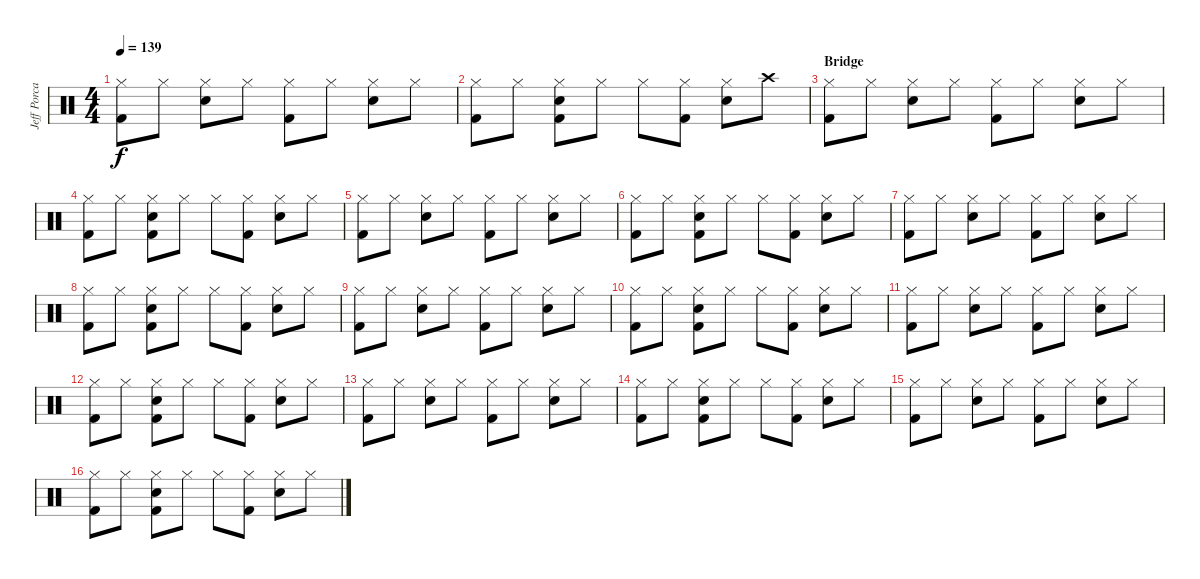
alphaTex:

\track ("Jeff Porcaro (Percussion)" "Jeff Porca") {instrument percussion}
\staff {score}
\articulation defaults
\ts (4 4)
\tempo 139
\clef neutral
\ks c
("Hi-Hat (closed)" "Kick (hit) 2").8{dy f} "Hi-Hat (closed)".8 ("Hi-Hat (closed)" "Snare (hit) 2").8 "Hi-Hat (closed)".8 ("Hi-Hat (closed)" "Kick (hit) 2").8 "Hi-Hat (closed)".8 ("Hi-Hat (closed)" "Snare (hit) 2").8 "Hi-Hat (closed)".8 |
("Hi-Hat (closed)" "Kick (hit) 2").8 "Hi-Hat (closed)".8 ("Hi-Hat (closed)" "Snare (hit) 2" "Kick (hit) 2").8 "Hi-Hat (closed)".8 "Hi-Hat (closed)".8 ("Hi-Hat (closed)" "Kick (hit) 2").8 ("Hi-Hat (closed)" "Snare (hit) 2").8 "Crash high (hit)".8 |
\section ("" "Bridge")
("Hi-Hat (closed)" "Kick (hit) 2").8 "Hi-Hat (closed)".8 ("Hi-Hat (closed)" "Snare (hit) 2").8 "Hi-Hat (closed)".8 ("Hi-Hat (closed)" "Kick (hit) 2").8 "Hi-Hat (closed)".8 ("Hi-Hat (closed)" "Snare (hit) 2").8 "Hi-Hat (closed)".8 |
("Hi-Hat (closed)" "Kick (hit) 2").8 "Hi-Hat (closed)".8 ("Hi-Hat (closed)" "Snare (hit) 2" "Kick (hit) 2").8 "Hi-Hat (closed)".8 "Hi-Hat (closed)".8 ("Hi-Hat (closed)" "Kick (hit) 2").8 ("Hi-Hat (closed)" "Snare (hit) 2").8 "Hi-Hat (closed)".8 |
("Hi-Hat (closed)" "Kick (hit) 2").8 "Hi-Hat (closed)".8 ("Hi-Hat (closed)" "Snare (hit) 2").8 "Hi-Hat (closed)".8 ("Hi-Hat (closed)" "Kick (hit) 2").8 "Hi-Hat (closed)".8 ("Hi-Hat (closed)" "Snare (hit) 2").8 "Hi-Hat (closed)".8 |
("Hi-Hat (closed)" "Kick (hit) 2").8 "Hi-Hat (closed)".8 ("Hi-Hat (closed)" "Snare (hit) 2" "Kick (hit) 2").8 "Hi-Hat (closed)".8 "Hi-Hat (closed)".8 ("Hi-Hat (closed)" "Kick (hit) 2").8 ("Hi-Hat (closed)" "Snare (hit) 2").8 "Hi-Hat (closed)".8 |
("Hi-Hat (closed)" "Kick (hit) 2").8 "Hi-Hat (closed)".8 ("Hi-Hat (closed)" "Snare (hit) 2").8 "Hi-Hat (closed)".8 ("Hi-Hat (closed)" "Kick (hit) 2").8 "Hi-Hat (closed)".8 ("Hi-Hat (closed)" "Snare (hit) 2").8 "Hi-Hat (closed)".8 |
("Hi-Hat (closed)" "Kick (hit) 2").8 "Hi-Hat (closed)".8 ("Hi-Hat (closed)" "Snare (hit) 2" "Kick (hit) 2").8 "Hi-Hat (closed)".8 "Hi-Hat (closed)".8 ("Hi-Hat (closed)" "Kick (hit) 2").8 ("Hi-Hat (closed)" "Snare (hit) 2").8 "Hi-Hat (closed)".8 |
("Hi-Hat (closed)" "Kick (hit) 2").8 "Hi-Hat (closed)".8 ("Hi-Hat (closed)" "Snare (hit) 2").8 "Hi-Hat (closed)".8 ("Hi-Hat (closed)" "Kick (hit) 2").8 "Hi-Hat (closed)".8 ("Hi-Hat (closed)" "Snare (hit) 2").8 "Hi-Hat (closed)".8 |
("Hi-Hat (closed)" "Kick (hit) 2").8 "Hi-Hat (closed)".8 ("Hi-Hat (closed)" "Snare (hit) 2" "Kick (hit) 2").8 "Hi-Hat (closed)".8 "Hi-Hat (closed)".8 ("Hi-Hat (closed)" "Kick (hit) 2").8 ("Hi-Hat (closed)" "Snare (hit) 2").8 "Hi-Hat (closed)".8 |
("Hi-Hat (closed)" "Kick (hit) 2").8 "Hi-Hat (closed)".8 ("Hi-Hat (closed)" "Snare (hit) 2").8 "Hi-Hat (closed)".8 ("Hi-Hat (closed)" "Kick (hit) 2").8 "Hi-Hat (closed)".8 ("Hi-Hat (closed)" "Snare (hit) 2").8 "Hi-Hat (closed)".8 |
("Hi-Hat (closed)" "Kick (hit) 2").8 "Hi-Hat (closed)".8 ("Hi-Hat (closed)" "Snare (hit) 2" "Kick (hit) 2").8 "Hi-Hat (closed)".8 "Hi-Hat (closed)".8 ("Hi-Hat (closed)" "Kick (hit) 2").8 ("Hi-Hat (closed)" "Snare (hit) 2").8 "Hi-Hat (closed)".8 |
("Hi-Hat (closed)" "Kick (hit) 2").8 "Hi-Hat (closed)".8 ("Hi-Hat (closed)" "Snare (hit) 2").8 "Hi-Hat (closed)".8 ("Hi-Hat (closed)" "Kick (hit) 2").8 "Hi-Hat (closed)".8 ("Hi-Hat (closed)" "Snare (hit) 2").8 "Hi-Hat (closed)".8 |
("Hi-Hat (closed)" "Kick (hit) 2").8 "Hi-Hat (closed)".8 ("Hi-Hat (closed)" "Snare (hit) 2" "Kick (hit) 2").8 "Hi-Hat (closed)".8 "Hi-Hat (closed)".8 ("Hi-Hat (closed)" "Kick (hit) 2").8 ("Hi-Hat (closed)" "Snare (hit) 2").8 "Hi-Hat (closed)".8 |
("Hi-Hat (closed)" "Kick (hit) 2").8 "Hi-Hat (closed)".8 ("Hi-Hat (closed)" "Snare (hit) 2").8 "Hi-Hat (closed)".8 ("Hi-Hat (closed)" "Kick (hit) 2").8 "Hi-Hat (closed)".8 ("Hi-Hat (closed)" "Snare (hit) 2").8 "Hi-Hat (closed)".8 |
("Hi-Hat (closed)" "Kick (hit) 2").8 "Hi-Hat (closed)".8 ("Hi-Hat (closed)" "Snare (hit) 2" "Kick (hit) 2").8 "Hi-Hat (closed)".8 "Hi-Hat (closed)".8 ("Hi-Hat (closed)" "Kick (hit) 2").8 ("Hi-Hat (closed)" "Snare (hit) 2").8 "Hi-Hat (closed)".8
